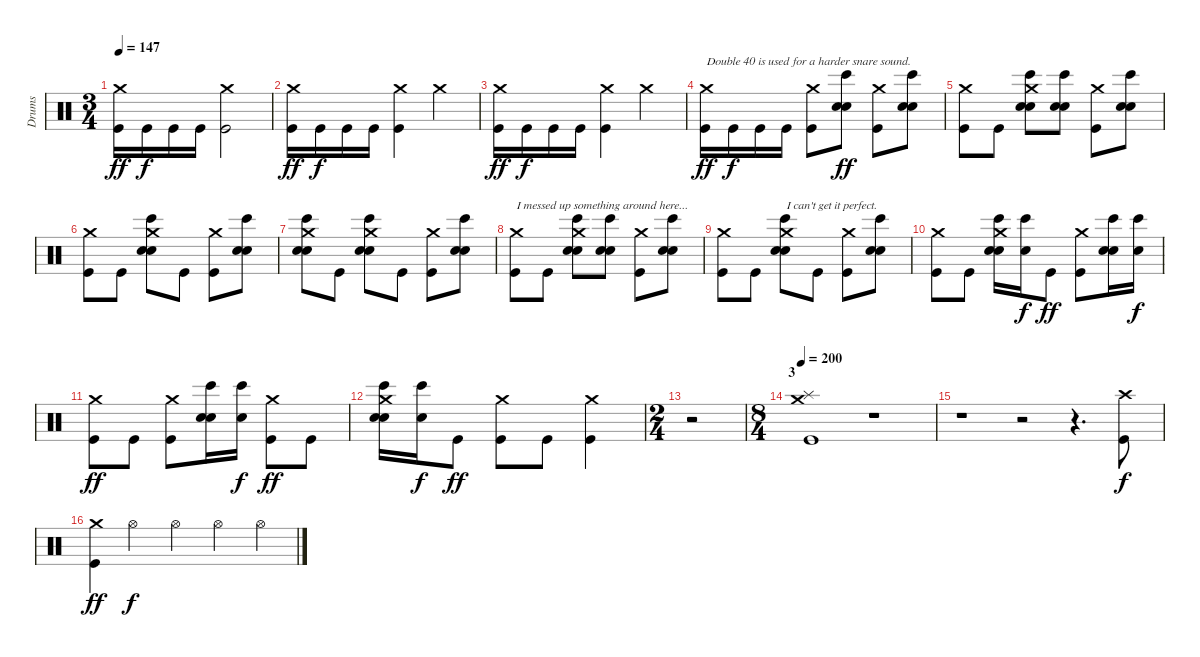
\track ("Drums" "Drums") {instrument percussion}
\staff {score}
\articulation defaults
\ts (3 4)
\tempo 147
\clef neutral
\ks c
("Kick (hit)" "Crash medium (hit)").16{dy ff} "Kick (hit)".16{dy f} "Kick (hit)".16 "Kick (hit)".16 ("Kick (hit)" "Crash medium (hit)").2 |
("Kick (hit)" "Crash medium (hit)").16{dy ff} "Kick (hit)".16{dy f} "Kick (hit)".16 "Kick (hit)".16 ("Kick (hit)" "Crash medium (hit)").4 "Crash medium (hit)".4 |
("Kick (hit)" "Crash medium (hit)").16{dy ff} "Kick (hit)".16{dy f} "Kick (hit)".16 "Kick (hit)".16 ("Kick (hit)" "Crash medium (hit)").4 "Crash medium (hit)".4 |
("Kick (hit)" "Crash medium (hit)").16{txt "Double 40 is used for a harder snare sound." dy ff} "Kick (hit)".16{dy f} "Kick (hit)".16 "Kick (hit)".16 ("Kick (hit)" "Crash medium (hit)").8 ("Electric Snare (hit)" "Electric Snare (hit)" "Bongo High (hit)").8{dy ff} ("Kick (hit)" "Crash medium (hit)").8 ("Electric Snare (hit)" "Electric Snare (hit)" "Bongo High (hit)").8 |
("Kick (hit)" "Crash medium (hit)").8 "Kick (hit)".8 ("Electric Snare (hit)" "Electric Snare (hit)" "Bongo High (hit)" "Crash medium (hit)").8 ("Electric Snare (hit)" "Electric Snare (hit)" "Bongo High (hit)").8 ("Kick (hit)" "Crash medium (hit)").8 ("Electric Snare (hit)" "Electric Snare (hit)" "Bongo High (hit)").8 |
("Kick (hit)" "Crash medium (hit)").8 "Kick (hit)".8 ("Electric Snare (hit)" "Electric Snare (hit)" "Bongo High (hit)" "Crash medium (hit)").8 "Kick (hit)".8 ("Kick (hit)" "Crash medium (hit)").8 ("Electric Snare (hit)" "Electric Snare (hit)" "Bongo High (hit)").8 |
("Electric Snare (hit)" "Electric Snare (hit)" "Bongo High (hit)" "Crash medium (hit)").8 "Kick (hit)".8 ("Electric Snare (hit)" "Electric Snare (hit)" "Bongo High (hit)" "Crash medium (hit)").8 "Kick (hit)".8 ("Kick (hit)" "Crash medium (hit)").8 ("Electric Snare (hit)" "Electric Snare (hit)" "Bongo High (hit)").8 |
("Kick (hit)" "Crash medium (hit)").8{txt "I messed up something around here..."} "Kick (hit)".8 ("Electric Snare (hit)" "Electric Snare (hit)" "Bongo High (hit)" "Crash medium (hit)").8 ("Electric Snare (hit)" "Electric Snare (hit)" "Bongo High (hit)").8 ("Kick (hit)" "Crash medium (hit)").8 ("Electric Snare (hit)" "Electric Snare (hit)" "Bongo High (hit)").8 |
("Kick (hit)" "Crash medium (hit)").8 "Kick (hit)".8 ("Electric Snare (hit)" "Electric Snare (hit)" "Bongo High (hit)" "Crash medium (hit)").8{txt "I can't get it perfect."} "Kick (hit)".8 ("Kick (hit)" "Crash medium (hit)").8 ("Electric Snare (hit)" "Electric Snare (hit)" "Bongo High (hit)").8 |
("Kick (hit)" "Crash medium (hit)").8 "Kick (hit)".8 ("Electric Snare (hit)" "Electric Snare (hit)" "Bongo High (hit)" "Crash medium (hit)").16 ("Electric Snare (hit)" "Bongo High (hit)").16{dy f} "Kick (hit)".8{dy ff} ("Kick (hit)" "Crash medium (hit)").8 ("Electric Snare (hit)" "Electric Snare (hit)" "Bongo High (hit)").16 ("Electric Snare (hit)" "Bongo High (hit)").16{dy f} |
("Kick (hit)" "Crash medium (hit)").8{dy ff} "Kick (hit)".8 ("Kick (hit)" "Crash medium (hit)").8 ("Electric Snare (hit)" "Electric Snare (hit)" "Bongo High (hit)").16 ("Electric Snare (hit)" "Bongo High (hit)").16{dy f} ("Kick (hit)" "Crash medium (hit)").8{dy ff} "Kick (hit)".8 |
("Electric Snare (hit)" "Electric Snare (hit)" "Bongo High (hit)" "Crash medium (hit)").16 ("Electric Snare (hit)" "Bongo High (hit)").16{dy f} "Kick (hit)".8{dy ff} ("Kick (hit)" "Crash medium (hit)").8 "Kick (hit)".8 ("Kick (hit)" "Crash medium (hit)").4 |
\ts (2 4)
r.2 |
\ts (8 4)
\section ("" "3")
\tempo 200
("Kick (hit)" "Splash (hit)" "Crash medium (hit)").1 r.1 |
r.1 r.2 r.4{d} ("Kick (hit)" "Crash high (hit)").8{dy f} |
("Kick (hit)" "Crash medium (hit)").4{dy ff} "Hi-Hat (open)".2{dy f} "Hi-Hat (open)".2 "Hi-Hat (open)".2 "Hi-Hat (open)".4
